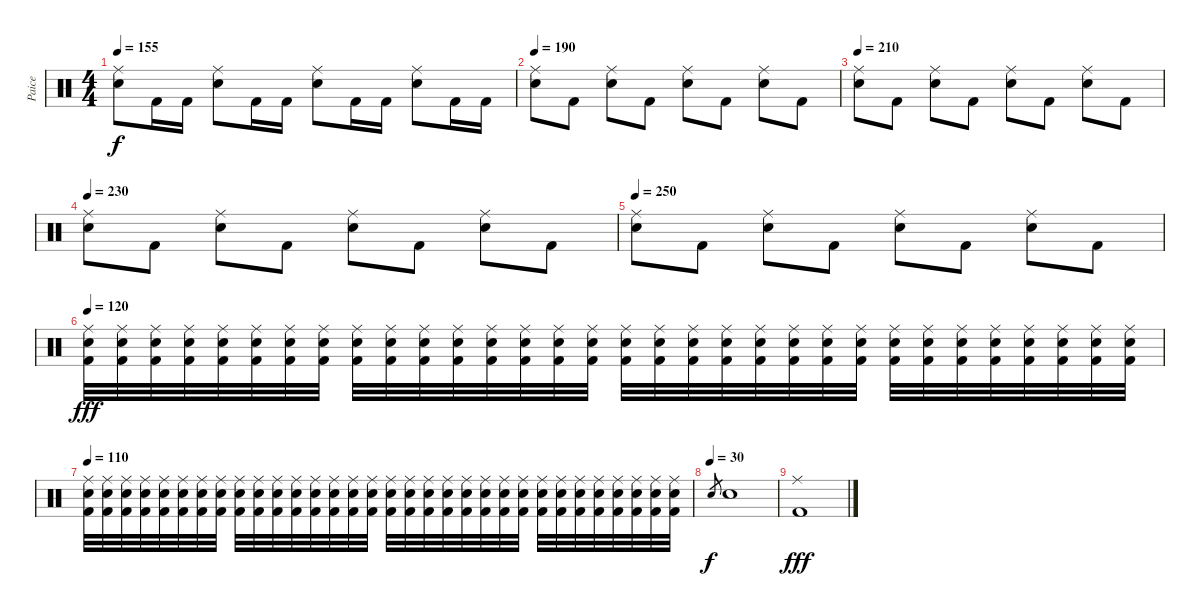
\track ("Paice" "Paice") {instrument percussion}
\staff {score}
\articulation defaults
\ts (4 4)
\tempo 155
\clef neutral
\ks c
("Ride (middle)" "Snare (hit) 2").8{dy f} "Kick (hit) 2".16 "Kick (hit) 2".16 ("Ride (middle)" "Snare (hit) 2").8 "Kick (hit) 2".16 "Kick (hit) 2".16 ("Ride (middle)" "Snare (hit) 2").8 "Kick (hit) 2".16 "Kick (hit) 2".16 ("Ride (middle)" "Snare (hit) 2").8 "Kick (hit) 2".16 "Kick (hit) 2".16 |
\tempo 190
("Ride (middle)" "Snare (hit) 2").8 "Kick (hit) 2".8 ("Ride (middle)" "Snare (hit) 2").8 "Kick (hit) 2".8 ("Ride (middle)" "Snare (hit) 2").8 "Kick (hit) 2".8 ("Ride (middle)" "Snare (hit) 2").8 "Kick (hit) 2".8 |
\tempo 210
("Ride (middle)" "Snare (hit) 2").8 "Kick (hit) 2".8 ("Ride (middle)" "Snare (hit) 2").8 "Kick (hit) 2".8 ("Ride (middle)" "Snare (hit) 2").8 "Kick (hit) 2".8 ("Ride (middle)" "Snare (hit) 2").8 "Kick (hit) 2".8 |
\tempo 230
("Ride (middle)" "Snare (hit) 2").8 "Kick (hit) 2".8 ("Ride (middle)" "Snare (hit) 2").8 "Kick (hit) 2".8 ("Ride (middle)" "Snare (hit) 2").8 "Kick (hit) 2".8 ("Ride (middle)" "Snare (hit) 2").8 "Kick (hit) 2".8 |
\tempo 250
("Ride (middle)" "Snare (hit) 2").8 "Kick (hit) 2".8 ("Ride (middle)" "Snare (hit) 2").8 "Kick (hit) 2".8 ("Ride (middle)" "Snare (hit) 2").8 "Kick (hit) 2".8 ("Ride (middle)" "Snare (hit) 2").8 "Kick (hit) 2".8 |
\tempo 120
("Ride (middle)" "Snare (hit) 2" "Kick (hit) 2").32{dy fff volume 10} ("Ride (middle)" "Snare (hit) 2" "Kick (hit) 2").32 ("Ride (middle)" "Snare (hit) 2" "Kick (hit) 2").32 ("Ride (middle)" "Snare (hit) 2" "Kick (hit) 2").32 ("Ride (middle)" "Snare (hit) 2" "Kick (hit) 2").32 ("Ride (middle)" "Snare (hit) 2" "Kick (hit) 2").32 ("Ride (middle)" "Snare (hit) 2" "Kick (hit) 2").32 ("Ride (middle)" "Snare (hit) 2" "Kick (hit) 2").32 ("Ride (middle)" "Snare (hit) 2" "Kick (hit) 2").32 ("Ride (middle)" "Snare (hit) 2" "Kick (hit) 2").32 ("Ride (middle)" "Snare (hit) 2" "Kick (hit) 2").32 ("Ride (middle)" "Snare (hit) 2" "Kick (hit) 2").32 ("Ride (middle)" "Snare (hit) 2" "Kick (hit) 2").32 ("Ride (middle)" "Snare (hit) 2" "Kick (hit) 2").32 ("Ride (middle)" "Snare (hit) 2" "Kick (hit) 2").32 ("Ride (middle)" "Snare (hit) 2" "Kick (hit) 2").32 ("Ride (middle)" "Snare (hit) 2" "Kick (hit) 2").32 ("Ride (middle)" "Snare (hit) 2" "Kick (hit) 2").32 ("Ride (middle)" "Snare (hit) 2" "Kick (hit) 2").32 ("Ride (middle)" "Snare (hit) 2" "Kick (hit) 2").32 ("Ride (middle)" "Snare (hit) 2" "Kick (hit) 2").32 ("Ride (middle)" "Snare (hit) 2" "Kick (hit) 2").32 ("Ride (middle)" "Snare (hit) 2" "Kick (hit) 2").32 ("Ride (middle)" "Snare (hit) 2" "Kick (hit) 2").32 ("Ride (middle)" "Snare (hit) 2" "Kick (hit) 2").32 ("Ride (middle)" "Snare (hit) 2" "Kick (hit) 2").32 ("Ride (middle)" "Snare (hit) 2" "Kick (hit) 2").32 ("Ride (middle)" "Snare (hit) 2" "Kick (hit) 2").32 ("Ride (middle)" "Snare (hit) 2" "Kick (hit) 2").32 ("Ride (middle)" "Snare (hit) 2" "Kick (hit) 2").32 ("Ride (middle)" "Snare (hit) 2" "Kick (hit) 2").32 ("Ride (middle)" "Snare (hit) 2" "Kick (hit) 2").32 |
\tempo 110
("Ride (middle)" "Snare (hit) 2" "Kick (hit) 2").32 ("Ride (middle)" "Snare (hit) 2" "Kick (hit) 2").32 ("Ride (middle)" "Snare (hit) 2" "Kick (hit) 2").32 ("Ride (middle)" "Snare (hit) 2" "Kick (hit) 2").32 ("Ride (middle)" "Snare (hit) 2" "Kick (hit) 2").32 ("Ride (middle)" "Snare (hit) 2" "Kick (hit) 2").32 ("Ride (middle)" "Snare (hit) 2" "Kick (hit) 2").32 ("Ride (middle)" "Snare (hit) 2" "Kick (hit) 2").32 ("Ride (middle)" "Snare (hit) 2" "Kick (hit) 2").32 ("Ride (middle)" "Snare (hit) 2" "Kick (hit) 2").32 ("Ride (middle)" "Snare (hit) 2" "Kick (hit) 2").32 ("Ride (middle)" "Snare (hit) 2" "Kick (hit) 2").32 ("Ride (middle)" "Snare (hit) 2" "Kick (hit) 2").32 ("Ride (middle)" "Snare (hit) 2" "Kick (hit) 2").32 ("Ride (middle)" "Snare (hit) 2" "Kick (hit) 2").32 ("Ride (middle)" "Snare (hit) 2" "Kick (hit) 2").32 ("Ride (middle)" "Snare (hit) 2" "Kick (hit) 2").32 ("Ride (middle)" "Snare (hit) 2" "Kick (hit) 2").32 ("Ride (middle)" "Snare (hit) 2" "Kick (hit) 2").32 ("Ride (middle)" "Snare (hit) 2" "Kick (hit) 2").32 ("Ride (middle)" "Snare (hit) 2" "Kick (hit) 2").32 ("Ride (middle)" "Snare (hit) 2" "Kick (hit) 2").32 ("Ride (middle)" "Snare (hit) 2" "Kick (hit) 2").32 ("Ride (middle)" "Snare (hit) 2" "Kick (hit) 2").32 ("Ride (middle)" "Snare (hit) 2" "Kick (hit) 2").32 ("Ride (middle)" "Snare (hit) 2" "Kick (hit) 2").32 ("Ride (middle)" "Snare (hit) 2" "Kick (hit) 2").32 ("Ride (middle)" "Snare (hit) 2" "Kick (hit) 2").32 ("Ride (middle)" "Snare (hit) 2" "Kick (hit) 2").32 ("Ride (middle)" "Snare (hit) 2" "Kick (hit) 2").32 ("Ride (middle)" "Snare (hit) 2" "Kick (hit) 2").32 ("Ride (middle)" "Snare (hit) 2" "Kick (hit) 2").32 |
\tempo (30)
"Snare (hit) 2".8{gr dy f} "Snare (hit) 2".1 |
("Ride (middle)" "Kick (hit) 2").1{dy fff}
